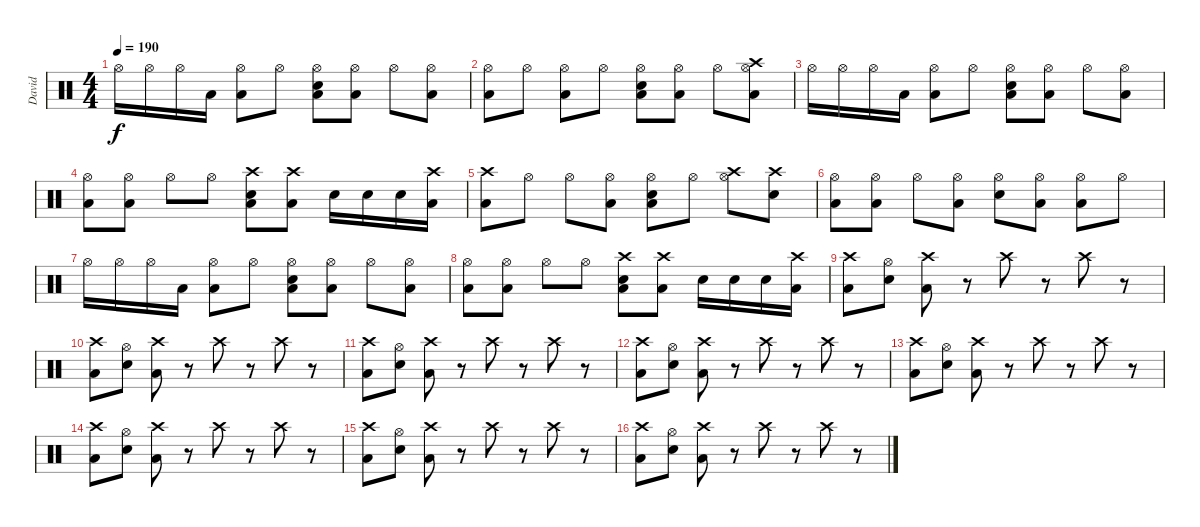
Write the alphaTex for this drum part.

\track ("David" "David") {instrument percussion}
\staff {score}
\articulation defaults
\ts (4 4)
\tempo 190
\clef neutral
\ks c "Hi-Hat (open)".16{dy f} "Hi-Hat (open)".16 "Hi-Hat (open)".16 "Low Tom (hit)".16
("Hi-Hat (open)" "Low Tom (hit)").8 "Hi-Hat (open)".8 ("Hi-Hat (open)" "Electric Snare (hit)" "Low Tom (hit)").8 ("Hi-Hat (open)" "Low Tom (hit)").8 "Hi-Hat (open)".8 ("Hi-Hat (open)" "Low Tom (hit)").8 |
("Hi-Hat (open)" "Low Tom (hit)").8 "Hi-Hat (open)".8 ("Hi-Hat (open)" "Low Tom (hit)").8 "Hi-Hat (open)".8 ("Hi-Hat (open)" "Electric Snare (hit)" "Low Tom (hit)").8 ("Hi-Hat (open)" "Low Tom (hit)").8 "Hi-Hat (open)".8 ("Crash high (hit)" "Hi-Hat (open)" "Low Tom (hit)").8 |
"Hi-Hat (open)".16 "Hi-Hat (open)".16 "Hi-Hat (open)".16 "Low Tom (hit)".16 ("Hi-Hat (open)" "Low Tom (hit)").8 "Hi-Hat (open)".8 ("Hi-Hat (open)" "Electric Snare (hit)" "Low Tom (hit)").8 ("Hi-Hat (open)" "Low Tom (hit)").8 "Hi-Hat (open)".8 ("Hi-Hat (open)" "Low Tom (hit)").8 |
("Hi-Hat (open)" "Low Tom (hit)").8 ("Hi-Hat (open)" "Low Tom (hit)").8 "Hi-Hat (open)".8 "Hi-Hat (open)".8 ("Crash high (hit)" "Electric Snare (hit)" "Low Tom (hit)").8 ("Crash high (hit)" "Low Tom (hit)").8 "Electric Snare (hit)".16 "Electric Snare (hit)".16 "Electric Snare (hit)".16 ("Crash high (hit)" "Low Tom (hit)").16 |
("Crash high (hit)" "Low Tom (hit)").8 "Hi-Hat (open)".8 "Hi-Hat (open)".8 ("Hi-Hat (open)" "Low Tom (hit)").8 ("Hi-Hat (open)" "Electric Snare (hit)" "Low Tom (hit)").8 "Hi-Hat (open)".8 ("Crash high (hit)" "Hi-Hat (open)").8 ("Crash high (hit)" "Electric Snare (hit)").8 |
("Hi-Hat (open)" "Low Tom (hit)").8 ("Hi-Hat (open)" "Low Tom (hit)").8 "Hi-Hat (open)".8 ("Hi-Hat (open)" "Low Tom (hit)").8 ("Hi-Hat (open)" "Electric Snare (hit)").8 ("Hi-Hat (open)" "Low Tom (hit)").8 ("Hi-Hat (open)" "Low Tom (hit)").8 "Hi-Hat (open)".8 |
"Hi-Hat (open)".16 "Hi-Hat (open)".16 "Hi-Hat (open)".16 "Low Tom (hit)".16 ("Hi-Hat (open)" "Low Tom (hit)").8 "Hi-Hat (open)".8 ("Hi-Hat (open)" "Electric Snare (hit)" "Low Tom (hit)").8 ("Hi-Hat (open)" "Low Tom (hit)").8 "Hi-Hat (open)".8 ("Hi-Hat (open)" "Low Tom (hit)").8 |
("Hi-Hat (open)" "Low Tom (hit)").8 ("Hi-Hat (open)" "Low Tom (hit)").8 "Hi-Hat (open)".8 "Hi-Hat (open)".8 ("Crash high (hit)" "Electric Snare (hit)" "Low Tom (hit)").8 ("Crash high (hit)" "Low Tom (hit)").8 "Electric Snare (hit)".16 "Electric Snare (hit)".16 "Electric Snare (hit)".16 ("Crash high (hit)" "Low Tom (hit)").16 |
("Crash high (hit)" "Low Tom (hit)").8 ("Hi-Hat (open)" "Electric Snare (hit)").8 ("Crash high (hit)" "Low Tom (hit)").8 r.8 "Crash high (hit)".8 r.8 "Crash high (hit)".8 r.8 |
("Crash high (hit)" "Low Tom (hit)").8 ("Hi-Hat (open)" "Electric Snare (hit)").8 ("Crash high (hit)" "Low Tom (hit)").8 r.8 "Crash high (hit)".8 r.8 "Crash high (hit)".8 r.8 |
("Crash high (hit)" "Low Tom (hit)").8 ("Hi-Hat (open)" "Electric Snare (hit)").8 ("Crash high (hit)" "Low Tom (hit)").8 r.8 "Crash high (hit)".8 r.8 "Crash high (hit)".8 r.8 |
("Crash high (hit)" "Low Tom (hit)").8 ("Hi-Hat (open)" "Electric Snare (hit)").8 ("Crash high (hit)" "Low Tom (hit)").8 r.8 "Crash high (hit)".8 r.8 "Crash high (hit)".8 r.8 |
("Crash high (hit)" "Low Tom (hit)").8 ("Hi-Hat (open)" "Electric Snare (hit)").8 ("Crash high (hit)" "Low Tom (hit)").8 r.8 "Crash high (hit)".8 r.8 "Crash high (hit)".8 r.8 |
("Crash high (hit)" "Low Tom (hit)").8 ("Hi-Hat (open)" "Electric Snare (hit)").8 ("Crash high (hit)" "Low Tom (hit)").8 r.8 "Crash high (hit)".8 r.8 "Crash high (hit)".8 r.8 |
("Crash high (hit)" "Low Tom (hit)").8 ("Hi-Hat (open)" "Electric Snare (hit)").8 ("Crash high (hit)" "Low Tom (hit)").8 r.8 "Crash high (hit)".8 r.8 "Crash high (hit)".8 r.8 |
("Crash high (hit)" "Low Tom (hit)").8 ("Hi-Hat (open)" "Electric Snare (hit)").8 ("Crash high (hit)" "Low Tom (hit)").8 r.8 "Crash high (hit)".8 r.8 "Crash high (hit)".8 r.8
